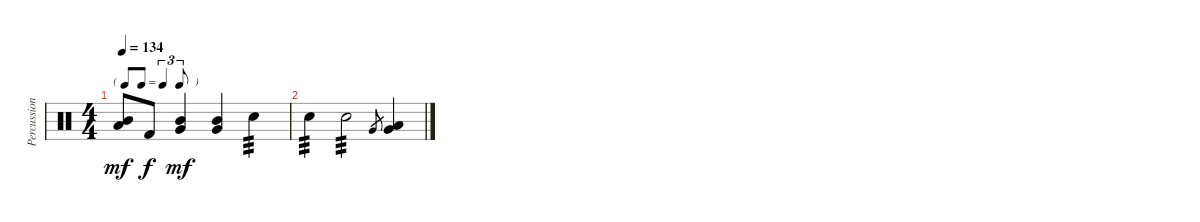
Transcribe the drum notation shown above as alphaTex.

\track ("Percussion" "Percussion") {instrument percussion}
\staff {score}
\articulation defaults
\ts (4 4)
\tf triplet8th
\tempo 134
\clef neutral
\ks c
("Mid Tom (hit)" "Low Tom (hit)").8{dy mf} "Kick (hit) 2".8{dy f} ("Mid Tom (hit)" "Very Low Tom (hit)").4{dy mf} ("Mid Tom (hit)" "Very Low Tom (hit)").4 "Snare (hit) 2".4{tp 3} |
"Snare (hit) 2".4{tp 3} "Snare (hit) 2".2{tp 3} "Very Low Tom (hit)".8{gr} ("Low Tom (hit)" "Very Low Tom (hit)").4
